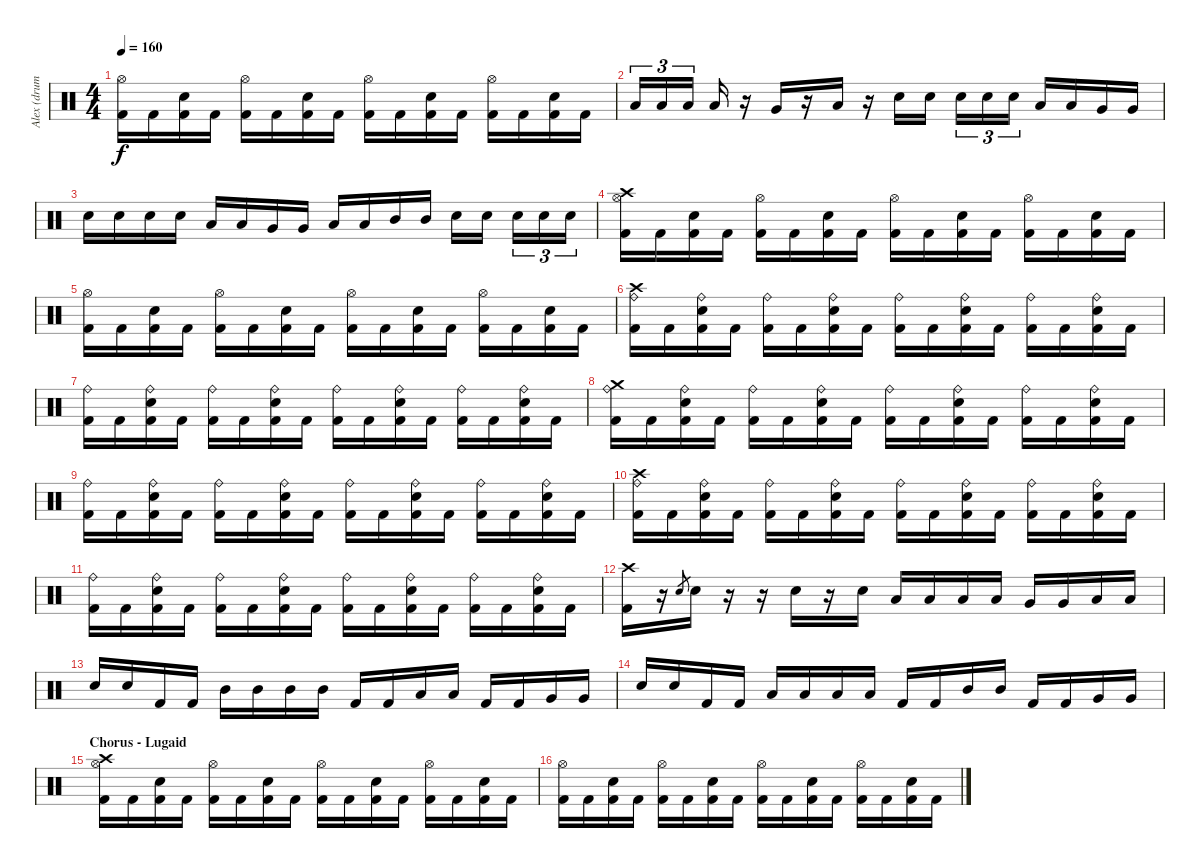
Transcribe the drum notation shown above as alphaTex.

\track ("Alex (drums)" "Alex (drum") {instrument percussion}
\staff {score}
\articulation defaults
\ts (4 4)
\tempo 160
\clef neutral
\ks c
("Hi-Hat (open)" "Kick (hit) 2").16{dy f} "Kick (hit) 2".16 ("Snare (hit) 2" "Kick (hit) 2").16 "Kick (hit) 2".16 ("Hi-Hat (open)" "Kick (hit) 2").16 "Kick (hit) 2".16 ("Snare (hit) 2" "Kick (hit) 2").16 "Kick (hit) 2".16 ("Hi-Hat (open)" "Kick (hit) 2").16 "Kick (hit) 2".16 ("Snare (hit) 2" "Kick (hit) 2").16 "Kick (hit) 2".16 ("Hi-Hat (open)" "Kick (hit) 2").16 "Kick (hit) 2".16 ("Snare (hit) 2" "Kick (hit) 2").16 "Kick (hit) 2".16 |
"Low Tom (hit)".16{tu (3 2)} "Low Tom (hit)".16{tu (3 2)} "Low Tom (hit)".16{tu (3 2)} "Low Tom (hit)".16 r.16 "Very Low Tom (hit)".16 r.16 "Low Tom (hit)".16 r.16 "Snare (hit) 2".16 "Snare (hit) 2".16 "Snare (hit) 2".16{tu (3 2)} "Snare (hit) 2".16{tu (3 2)} "Snare (hit) 2".16{tu (3 2)} "Low Tom (hit)".16 "Low Tom (hit)".16 "Very Low Tom (hit)".16 "Very Low Tom (hit)".16 |
"Snare (hit) 2".16 "Snare (hit) 2".16 "Snare (hit) 2".16 "Snare (hit) 2".16 "Low Tom (hit)".16 "Low Tom (hit)".16 "Very Low Tom (hit)".16 "Very Low Tom (hit)".16 "Low Tom (hit)".16 "Low Tom (hit)".16 "Mid Tom (hit)".16 "Mid Tom (hit)".16 "Snare (hit) 2".16 "Snare (hit) 2".16 "Snare (hit) 2".16{tu (3 2)} "Snare (hit) 2".16{tu (3 2)} "Snare (hit) 2".16{tu (3 2)} |
("Hi-Hat (open)" "Kick (hit) 2" "Crash high (hit)").16 "Kick (hit) 2".16 ("Snare (hit) 2" "Kick (hit) 2").16 "Kick (hit) 2".16 ("Hi-Hat (open)" "Kick (hit) 2").16 "Kick (hit) 2".16 ("Snare (hit) 2" "Kick (hit) 2").16 "Kick (hit) 2".16 ("Hi-Hat (open)" "Kick (hit) 2").16 "Kick (hit) 2".16 ("Snare (hit) 2" "Kick (hit) 2").16 "Kick (hit) 2".16 ("Hi-Hat (open)" "Kick (hit) 2").16 "Kick (hit) 2".16 ("Snare (hit) 2" "Kick (hit) 2").16 "Kick (hit) 2".16 |
("Hi-Hat (open)" "Kick (hit) 2").16 "Kick (hit) 2".16 ("Snare (hit) 2" "Kick (hit) 2").16 "Kick (hit) 2".16 ("Hi-Hat (open)" "Kick (hit) 2").16 "Kick (hit) 2".16 ("Snare (hit) 2" "Kick (hit) 2").16 "Kick (hit) 2".16 ("Hi-Hat (open)" "Kick (hit) 2").16 "Kick (hit) 2".16 ("Snare (hit) 2" "Kick (hit) 2").16 "Kick (hit) 2".16 ("Hi-Hat (open)" "Kick (hit) 2").16 "Kick (hit) 2".16 ("Snare (hit) 2" "Kick (hit) 2").16 "Kick (hit) 2".16 |
("Ride (bell)" "Kick (hit) 2" "Crash high (hit)").16 "Kick (hit) 2".16 ("Ride (bell)" "Snare (hit) 2" "Kick (hit) 2").16 "Kick (hit) 2".16 ("Ride (bell)" "Kick (hit) 2").16 "Kick (hit) 2".16 ("Ride (bell)" "Snare (hit) 2" "Kick (hit) 2").16 "Kick (hit) 2".16 ("Ride (bell)" "Kick (hit) 2").16 "Kick (hit) 2".16 ("Ride (bell)" "Snare (hit) 2" "Kick (hit) 2").16 "Kick (hit) 2".16 ("Ride (bell)" "Kick (hit) 2").16 "Kick (hit) 2".16 ("Ride (bell)" "Snare (hit) 2" "Kick (hit) 2").16 "Kick (hit) 2".16 |
("Ride (bell)" "Kick (hit) 2").16 "Kick (hit) 2".16 ("Ride (bell)" "Snare (hit) 2" "Kick (hit) 2").16 "Kick (hit) 2".16 ("Ride (bell)" "Kick (hit) 2").16 "Kick (hit) 2".16 ("Ride (bell)" "Snare (hit) 2" "Kick (hit) 2").16 "Kick (hit) 2".16 ("Ride (bell)" "Kick (hit) 2").16 "Kick (hit) 2".16 ("Ride (bell)" "Snare (hit) 2" "Kick (hit) 2").16 "Kick (hit) 2".16 ("Ride (bell)" "Kick (hit) 2").16 "Kick (hit) 2".16 ("Ride (bell)" "Snare (hit) 2" "Kick (hit) 2").16 "Kick (hit) 2".16 |
("Ride (bell)" "Kick (hit) 2" "Crash medium (hit)").16 "Kick (hit) 2".16 ("Ride (bell)" "Snare (hit) 2" "Kick (hit) 2").16 "Kick (hit) 2".16 ("Ride (bell)" "Kick (hit) 2").16 "Kick (hit) 2".16 ("Ride (bell)" "Snare (hit) 2" "Kick (hit) 2").16 "Kick (hit) 2".16 ("Ride (bell)" "Kick (hit) 2").16 "Kick (hit) 2".16 ("Ride (bell)" "Snare (hit) 2" "Kick (hit) 2").16 "Kick (hit) 2".16 ("Ride (bell)" "Kick (hit) 2").16 "Kick (hit) 2".16 ("Ride (bell)" "Snare (hit) 2" "Kick (hit) 2").16 "Kick (hit) 2".16 |
("Ride (bell)" "Kick (hit) 2").16 "Kick (hit) 2".16 ("Ride (bell)" "Snare (hit) 2" "Kick (hit) 2").16 "Kick (hit) 2".16 ("Ride (bell)" "Kick (hit) 2").16 "Kick (hit) 2".16 ("Ride (bell)" "Snare (hit) 2" "Kick (hit) 2").16 "Kick (hit) 2".16 ("Ride (bell)" "Kick (hit) 2").16 "Kick (hit) 2".16 ("Ride (bell)" "Snare (hit) 2" "Kick (hit) 2").16 "Kick (hit) 2".16 ("Ride (bell)" "Kick (hit) 2").16 "Kick (hit) 2".16 ("Ride (bell)" "Snare (hit) 2" "Kick (hit) 2").16 "Kick (hit) 2".16 |
("Ride (bell)" "Kick (hit) 2" "Crash high (hit)").16 "Kick (hit) 2".16 ("Ride (bell)" "Snare (hit) 2" "Kick (hit) 2").16 "Kick (hit) 2".16 ("Ride (bell)" "Kick (hit) 2").16 "Kick (hit) 2".16 ("Ride (bell)" "Snare (hit) 2" "Kick (hit) 2").16 "Kick (hit) 2".16 ("Ride (bell)" "Kick (hit) 2").16 "Kick (hit) 2".16 ("Ride (bell)" "Snare (hit) 2" "Kick (hit) 2").16 "Kick (hit) 2".16 ("Ride (bell)" "Kick (hit) 2").16 "Kick (hit) 2".16 ("Ride (bell)" "Snare (hit) 2" "Kick (hit) 2").16 "Kick (hit) 2".16 |
("Ride (bell)" "Kick (hit) 2").16 "Kick (hit) 2".16 ("Ride (bell)" "Snare (hit) 2" "Kick (hit) 2").16 "Kick (hit) 2".16 ("Ride (bell)" "Kick (hit) 2").16 "Kick (hit) 2".16 ("Ride (bell)" "Snare (hit) 2" "Kick (hit) 2").16 "Kick (hit) 2".16 ("Ride (bell)" "Kick (hit) 2").16 "Kick (hit) 2".16 ("Ride (bell)" "Snare (hit) 2" "Kick (hit) 2").16 "Kick (hit) 2".16 ("Ride (bell)" "Kick (hit) 2").16 "Kick (hit) 2".16 ("Ride (bell)" "Snare (hit) 2" "Kick (hit) 2").16 "Kick (hit) 2".16 |
("Kick (hit) 2" "Crash high (hit)").16 r.16 "Snare (hit) 2".8{gr} "Snare (hit) 2".16 r.16 r.16 "Snare (hit) 2".16 r.16 "Snare (hit) 2".16 "Low Tom (hit)".16 "Low Tom (hit)".16 "Low Tom (hit)".16 "Low Tom (hit)".16 "Very Low Tom (hit)".16 "Very Low Tom (hit)".16 "Low Tom (hit)".16 "Low Tom (hit)".16 |
"Snare (hit) 2".16 "Snare (hit) 2".16 "Kick (hit) 2".16 "Kick (hit) 2".16 "Mid Tom (hit)".16 "Mid Tom (hit)".16 "Mid Tom (hit)".16 "Mid Tom (hit)".16 "Kick (hit) 2".16 "Kick (hit) 2".16 "Low Tom (hit)".16 "Low Tom (hit)".16 "Kick (hit) 2".16 "Kick (hit) 2".16 "Very Low Tom (hit)".16 "Very Low Tom (hit)".16 |
"Snare (hit) 2".16 "Snare (hit) 2".16 "Kick (hit) 2".16 "Kick (hit) 2".16 "Low Tom (hit)".16 "Low Tom (hit)".16 "Low Tom (hit)".16 "Low Tom (hit)".16 "Kick (hit) 2".16 "Kick (hit) 2".16 "Mid Tom (hit)".16 "Mid Tom (hit)".16 "Kick (hit) 2".16 "Kick (hit) 2".16 "Very Low Tom (hit)".16 "Very Low Tom (hit)".16 |
\section ("" "Chorus - Lugaid")
("Hi-Hat (open)" "Kick (hit) 2" "Crash high (hit)").16 "Kick (hit) 2".16 ("Snare (hit) 2" "Kick (hit) 2").16 "Kick (hit) 2".16 ("Hi-Hat (open)" "Kick (hit) 2").16 "Kick (hit) 2".16 ("Snare (hit) 2" "Kick (hit) 2").16 "Kick (hit) 2".16 ("Hi-Hat (open)" "Kick (hit) 2").16 "Kick (hit) 2".16 ("Snare (hit) 2" "Kick (hit) 2").16 "Kick (hit) 2".16 ("Hi-Hat (open)" "Kick (hit) 2").16 "Kick (hit) 2".16 ("Snare (hit) 2" "Kick (hit) 2").16 "Kick (hit) 2".16 |
("Hi-Hat (open)" "Kick (hit) 2").16 "Kick (hit) 2".16 ("Snare (hit) 2" "Kick (hit) 2").16 "Kick (hit) 2".16 ("Hi-Hat (open)" "Kick (hit) 2").16 "Kick (hit) 2".16 ("Snare (hit) 2" "Kick (hit) 2").16 "Kick (hit) 2".16 ("Hi-Hat (open)" "Kick (hit) 2").16 "Kick (hit) 2".16 ("Snare (hit) 2" "Kick (hit) 2").16 "Kick (hit) 2".16 ("Hi-Hat (open)" "Kick (hit) 2").16 "Kick (hit) 2".16 ("Snare (hit) 2" "Kick (hit) 2").16 "Kick (hit) 2".16
